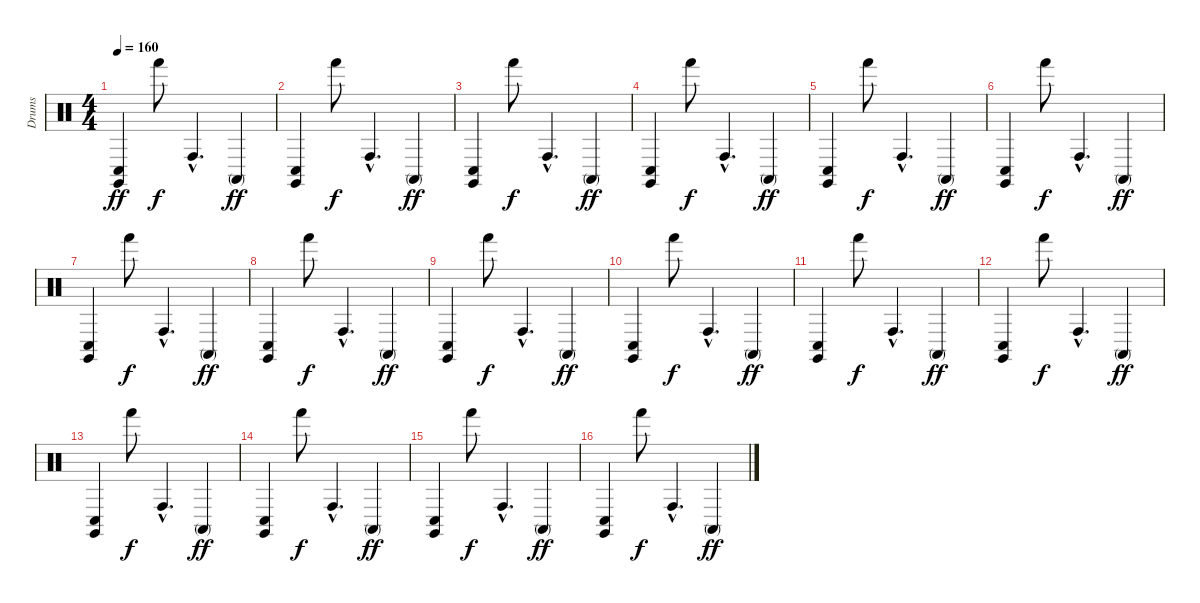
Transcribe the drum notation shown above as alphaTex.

\track ("Drums" "Drums") {instrument percussion}
\staff {score}
\articulation defaults
\ts (4 4)
\tempo 160
\clef neutral
\ks c
("Conga low (hit)" "Claves (hit)").4{dy ff} "Hand (hit)".8{dy f} "Conga high (hit)"{hac}.4{d} "Conga high (mute)".4{dy ff} |
("Conga low (hit)" "Claves (hit)").4 "Hand (hit)".8{dy f} "Conga high (hit)"{hac}.4{d} "Conga high (mute)".4{dy ff} |
("Conga low (hit)" "Claves (hit)").4 "Hand (hit)".8{dy f} "Conga high (hit)"{hac}.4{d} "Conga high (mute)".4{dy ff} |
("Conga low (hit)" "Claves (hit)").4 "Hand (hit)".8{dy f} "Conga high (hit)"{hac}.4{d} "Conga high (mute)".4{dy ff} |
("Conga low (hit)" "Claves (hit)").4 "Hand (hit)".8{dy f} "Conga high (hit)"{hac}.4{d} "Conga high (mute)".4{dy ff} |
("Conga low (hit)" "Claves (hit)").4 "Hand (hit)".8{dy f} "Conga high (hit)"{hac}.4{d} "Conga high (mute)".4{dy ff} |
("Conga low (hit)" "Claves (hit)").4 "Hand (hit)".8{dy f} "Conga high (hit)"{hac}.4{d} "Conga high (mute)".4{dy ff} |
("Conga low (hit)" "Claves (hit)").4 "Hand (hit)".8{dy f} "Conga high (hit)"{hac}.4{d} "Conga high (mute)".4{dy ff} |
("Conga low (hit)" "Claves (hit)").4 "Hand (hit)".8{dy f} "Conga high (hit)"{hac}.4{d} "Conga high (mute)".4{dy ff} |
("Conga low (hit)" "Claves (hit)").4 "Hand (hit)".8{dy f} "Conga high (hit)"{hac}.4{d} "Conga high (mute)".4{dy ff} |
("Conga low (hit)" "Claves (hit)").4 "Hand (hit)".8{dy f} "Conga high (hit)"{hac}.4{d} "Conga high (mute)".4{dy ff} |
("Conga low (hit)" "Claves (hit)").4 "Hand (hit)".8{dy f} "Conga high (hit)"{hac}.4{d} "Conga high (mute)".4{dy ff} |
("Conga low (hit)" "Claves (hit)").4 "Hand (hit)".8{dy f} "Conga high (hit)"{hac}.4{d} "Conga high (mute)".4{dy ff} |
("Conga low (hit)" "Claves (hit)").4 "Hand (hit)".8{dy f} "Conga high (hit)"{hac}.4{d} "Conga high (mute)".4{dy ff} |
("Conga low (hit)" "Claves (hit)").4 "Hand (hit)".8{dy f} "Conga high (hit)"{hac}.4{d} "Conga high (mute)".4{dy ff} |
("Conga low (hit)" "Claves (hit)").4 "Hand (hit)".8{dy f} "Conga high (hit)"{hac}.4{d} "Conga high (mute)".4{dy ff}
